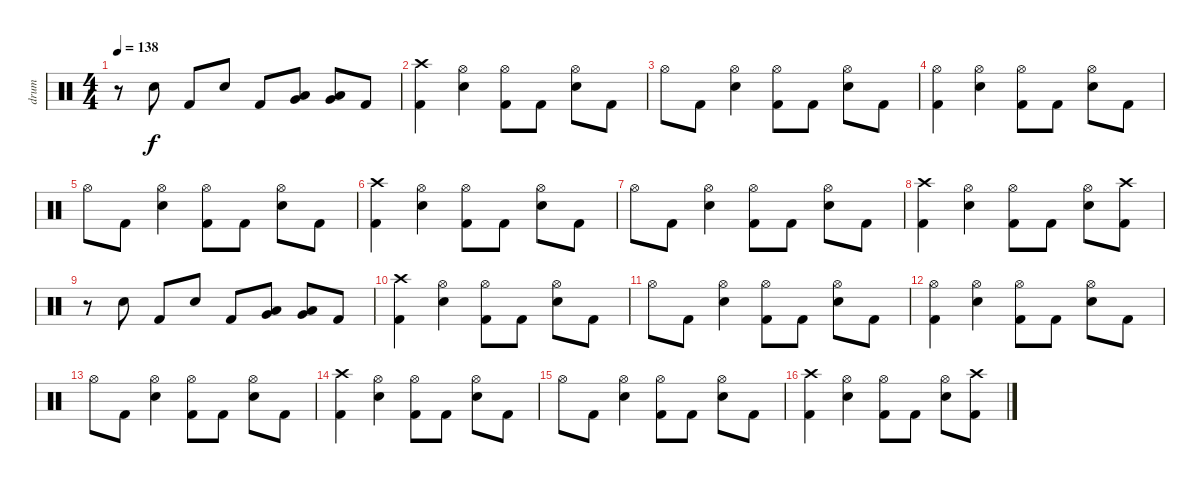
\track ("drum" "drum") {instrument percussion}
\staff {score}
\articulation defaults
\ts (4 4)
\tempo 138
\clef neutral
\ks c
r.8{dy f} "Snare (hit) 2".8 "Kick (hit) 2".8 "Snare (hit) 2".8 "Kick (hit) 2".8 ("Low Tom (hit)" "Very Low Tom (hit)").8 ("Low Tom (hit)" "Very Low Tom (hit)").8 "Kick (hit) 2".8 |
("Crash high (hit)" "Kick (hit) 2").4 ("Hi-Hat (open)" "Snare (hit) 2").4 ("Hi-Hat (open)" "Kick (hit) 2").8 "Kick (hit) 2".8 ("Hi-Hat (open)" "Snare (hit) 2").8 "Kick (hit) 2".8 |
"Hi-Hat (open)".8 "Kick (hit) 2".8 ("Hi-Hat (open)" "Snare (hit) 2").4 ("Hi-Hat (open)" "Kick (hit) 2").8 "Kick (hit) 2".8 ("Hi-Hat (open)" "Snare (hit) 2").8 "Kick (hit) 2".8 |
("Hi-Hat (open)" "Kick (hit) 2").4 ("Hi-Hat (open)" "Snare (hit) 2").4 ("Hi-Hat (open)" "Kick (hit) 2").8 "Kick (hit) 2".8 ("Hi-Hat (open)" "Snare (hit) 2").8 "Kick (hit) 2".8 |
"Hi-Hat (open)".8 "Kick (hit) 2".8 ("Hi-Hat (open)" "Snare (hit) 2").4 ("Hi-Hat (open)" "Kick (hit) 2").8 "Kick (hit) 2".8 ("Hi-Hat (open)" "Snare (hit) 2").8 "Kick (hit) 2".8 |
("Crash high (hit)" "Kick (hit) 2").4 ("Hi-Hat (open)" "Snare (hit) 2").4 ("Hi-Hat (open)" "Kick (hit) 2").8 "Kick (hit) 2".8 ("Hi-Hat (open)" "Snare (hit) 2").8 "Kick (hit) 2".8 |
"Hi-Hat (open)".8 "Kick (hit) 2".8 ("Hi-Hat (open)" "Snare (hit) 2").4 ("Hi-Hat (open)" "Kick (hit) 2").8 "Kick (hit) 2".8 ("Hi-Hat (open)" "Snare (hit) 2").8 "Kick (hit) 2".8 |
("Crash high (hit)" "Kick (hit) 2").4 ("Hi-Hat (open)" "Snare (hit) 2").4 ("Hi-Hat (open)" "Kick (hit) 2").8 "Kick (hit) 2".8 ("Hi-Hat (open)" "Snare (hit) 2").8 ("Crash high (hit)" "Kick (hit) 2").8 |
r.8 "Snare (hit) 2".8 "Kick (hit) 2".8 "Snare (hit) 2".8 "Kick (hit) 2".8 ("Low Tom (hit)" "Very Low Tom (hit)").8 ("Low Tom (hit)" "Very Low Tom (hit)").8 "Kick (hit) 2".8 |
("Crash high (hit)" "Kick (hit) 2").4 ("Hi-Hat (open)" "Snare (hit) 2").4 ("Hi-Hat (open)" "Kick (hit) 2").8 "Kick (hit) 2".8 ("Hi-Hat (open)" "Snare (hit) 2").8 "Kick (hit) 2".8 |
"Hi-Hat (open)".8 "Kick (hit) 2".8 ("Hi-Hat (open)" "Snare (hit) 2").4 ("Hi-Hat (open)" "Kick (hit) 2").8 "Kick (hit) 2".8 ("Hi-Hat (open)" "Snare (hit) 2").8 "Kick (hit) 2".8 |
("Hi-Hat (open)" "Kick (hit) 2").4 ("Hi-Hat (open)" "Snare (hit) 2").4 ("Hi-Hat (open)" "Kick (hit) 2").8 "Kick (hit) 2".8 ("Hi-Hat (open)" "Snare (hit) 2").8 "Kick (hit) 2".8 |
"Hi-Hat (open)".8 "Kick (hit) 2".8 ("Hi-Hat (open)" "Snare (hit) 2").4 ("Hi-Hat (open)" "Kick (hit) 2").8 "Kick (hit) 2".8 ("Hi-Hat (open)" "Snare (hit) 2").8 "Kick (hit) 2".8 |
("Crash high (hit)" "Kick (hit) 2").4 ("Hi-Hat (open)" "Snare (hit) 2").4 ("Hi-Hat (open)" "Kick (hit) 2").8 "Kick (hit) 2".8 ("Hi-Hat (open)" "Snare (hit) 2").8 "Kick (hit) 2".8 |
"Hi-Hat (open)".8 "Kick (hit) 2".8 ("Hi-Hat (open)" "Snare (hit) 2").4 ("Hi-Hat (open)" "Kick (hit) 2").8 "Kick (hit) 2".8 ("Hi-Hat (open)" "Snare (hit) 2").8 "Kick (hit) 2".8 |
("Crash high (hit)" "Kick (hit) 2").4 ("Hi-Hat (open)" "Snare (hit) 2").4 ("Hi-Hat (open)" "Kick (hit) 2").8 "Kick (hit) 2".8 ("Hi-Hat (open)" "Snare (hit) 2").8 ("Crash high (hit)" "Kick (hit) 2").8
